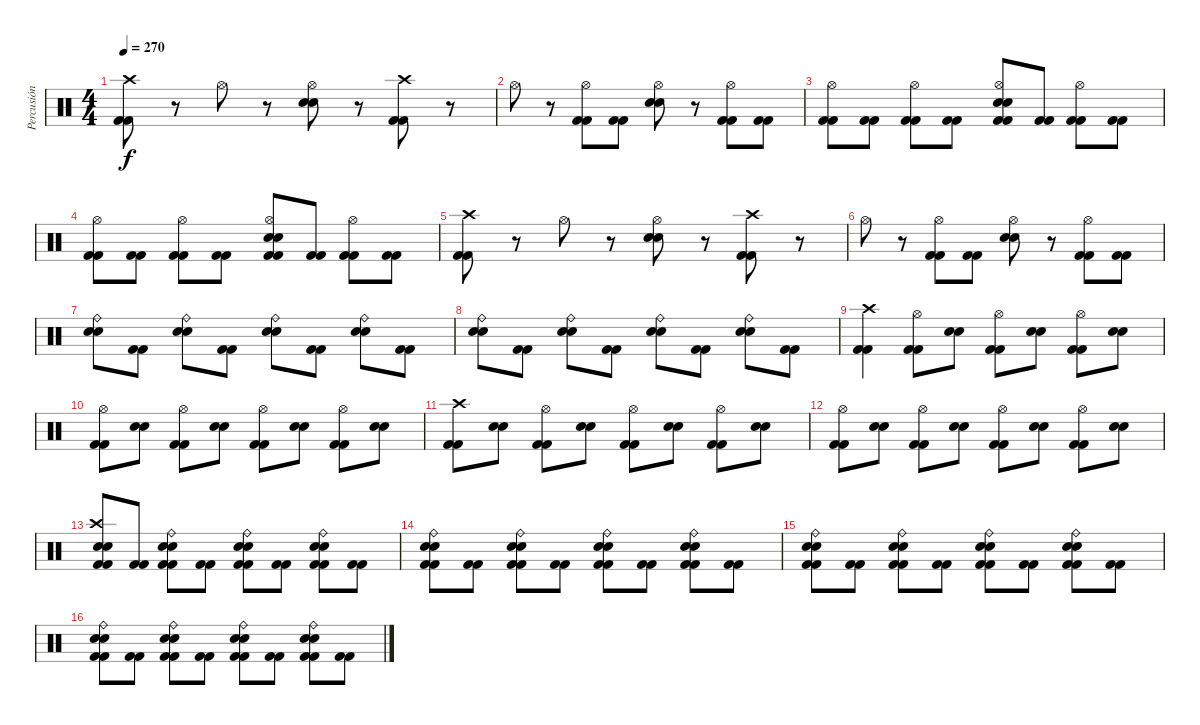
\track ("Percusión" "Percusión") {instrument percussion}
\staff {score}
\articulation defaults
\ts (4 4)
\tempo 270
\clef neutral
\ks c
("Kick (hit) 2" "Kick (hit) 2" "Crash high (hit)").8{dy f} r.8 "Hi-Hat (open)".8 r.8 ("Electric Snare (hit)" "Electric Snare (hit)" "Hi-Hat (open)").8 r.8 ("Kick (hit) 2" "Kick (hit) 2" "Crash high (hit)").8 r.8 |
"Hi-Hat (open)".8 r.8 ("Kick (hit) 2" "Kick (hit) 2" "Hi-Hat (open)").8 ("Kick (hit) 2" "Kick (hit) 2").8 ("Electric Snare (hit)" "Electric Snare (hit)" "Hi-Hat (open)").8 r.8 ("Kick (hit) 2" "Kick (hit) 2" "Hi-Hat (open)").8 ("Kick (hit) 2" "Kick (hit) 2").8 |
("Kick (hit) 2" "Kick (hit) 2" "Hi-Hat (open)").8 ("Kick (hit) 2" "Kick (hit) 2").8 ("Kick (hit) 2" "Kick (hit) 2" "Hi-Hat (open)").8 ("Kick (hit) 2" "Kick (hit) 2").8 ("Kick (hit) 2" "Kick (hit) 2" "Electric Snare (hit)" "Electric Snare (hit)" "Hi-Hat (open)").8 ("Kick (hit) 2" "Kick (hit) 2").8 ("Kick (hit) 2" "Kick (hit) 2" "Hi-Hat (open)").8 ("Kick (hit) 2" "Kick (hit) 2").8 |
("Kick (hit) 2" "Kick (hit) 2" "Hi-Hat (open)").8 ("Kick (hit) 2" "Kick (hit) 2").8 ("Kick (hit) 2" "Kick (hit) 2" "Hi-Hat (open)").8 ("Kick (hit) 2" "Kick (hit) 2").8 ("Kick (hit) 2" "Kick (hit) 2" "Electric Snare (hit)" "Electric Snare (hit)" "Hi-Hat (open)").8 ("Kick (hit) 2" "Kick (hit) 2").8 ("Kick (hit) 2" "Kick (hit) 2" "Hi-Hat (open)").8 ("Kick (hit) 2" "Kick (hit) 2").8 |
("Kick (hit) 2" "Kick (hit) 2" "Crash high (hit)").8 r.8 "Hi-Hat (open)".8 r.8 ("Electric Snare (hit)" "Electric Snare (hit)" "Hi-Hat (open)").8 r.8 ("Kick (hit) 2" "Kick (hit) 2" "Crash high (hit)").8 r.8 |
"Hi-Hat (open)".8 r.8 ("Kick (hit) 2" "Kick (hit) 2" "Hi-Hat (open)").8 ("Kick (hit) 2" "Kick (hit) 2").8 ("Electric Snare (hit)" "Electric Snare (hit)" "Hi-Hat (open)").8 r.8 ("Kick (hit) 2" "Kick (hit) 2" "Hi-Hat (open)").8 ("Kick (hit) 2" "Kick (hit) 2").8 |
("Electric Snare (hit)" "Electric Snare (hit)" "Ride (bell)").8 ("Kick (hit) 2" "Kick (hit) 2").8 ("Electric Snare (hit)" "Electric Snare (hit)" "Ride (bell)").8 ("Kick (hit) 2" "Kick (hit) 2").8 ("Electric Snare (hit)" "Electric Snare (hit)" "Ride (bell)").8 ("Kick (hit) 2" "Kick (hit) 2").8 ("Electric Snare (hit)" "Electric Snare (hit)" "Ride (bell)").8 ("Kick (hit) 2" "Kick (hit) 2").8 |
("Electric Snare (hit)" "Electric Snare (hit)" "Ride (bell)").8 ("Kick (hit) 2" "Kick (hit) 2").8 ("Electric Snare (hit)" "Electric Snare (hit)" "Ride (bell)").8 ("Kick (hit) 2" "Kick (hit) 2").8 ("Electric Snare (hit)" "Electric Snare (hit)" "Ride (bell)").8 ("Kick (hit) 2" "Kick (hit) 2").8 ("Electric Snare (hit)" "Electric Snare (hit)" "Ride (bell)").8 ("Kick (hit) 2" "Kick (hit) 2").8 |
("Kick (hit) 2" "Kick (hit) 2" "Crash high (hit)").4 ("Kick (hit) 2" "Kick (hit) 2" "Hi-Hat (open)").8 ("Electric Snare (hit)" "Electric Snare (hit)").8 ("Kick (hit) 2" "Kick (hit) 2" "Hi-Hat (open)").8 ("Electric Snare (hit)" "Electric Snare (hit)").8 ("Kick (hit) 2" "Kick (hit) 2" "Hi-Hat (open)").8 ("Electric Snare (hit)" "Electric Snare (hit)").8 |
("Kick (hit) 2" "Kick (hit) 2" "Hi-Hat (open)").8 ("Electric Snare (hit)" "Electric Snare (hit)").8 ("Kick (hit) 2" "Kick (hit) 2" "Hi-Hat (open)").8 ("Electric Snare (hit)" "Electric Snare (hit)").8 ("Kick (hit) 2" "Kick (hit) 2" "Hi-Hat (open)").8 ("Electric Snare (hit)" "Electric Snare (hit)").8 ("Kick (hit) 2" "Kick (hit) 2" "Hi-Hat (open)").8 ("Electric Snare (hit)" "Electric Snare (hit)").8 |
("Kick (hit) 2" "Kick (hit) 2" "Crash high (hit)").8 ("Electric Snare (hit)" "Electric Snare (hit)").8 ("Kick (hit) 2" "Kick (hit) 2" "Hi-Hat (open)").8 ("Electric Snare (hit)" "Electric Snare (hit)").8 ("Kick (hit) 2" "Kick (hit) 2" "Hi-Hat (open)").8 ("Electric Snare (hit)" "Electric Snare (hit)").8 ("Kick (hit) 2" "Kick (hit) 2" "Hi-Hat (open)").8 ("Electric Snare (hit)" "Electric Snare (hit)").8 |
("Kick (hit) 2" "Kick (hit) 2" "Hi-Hat (open)").8 ("Electric Snare (hit)" "Electric Snare (hit)").8 ("Kick (hit) 2" "Kick (hit) 2" "Hi-Hat (open)").8 ("Electric Snare (hit)" "Electric Snare (hit)").8 ("Kick (hit) 2" "Kick (hit) 2" "Hi-Hat (open)").8 ("Electric Snare (hit)" "Electric Snare (hit)").8 ("Kick (hit) 2" "Kick (hit) 2" "Hi-Hat (open)").8 ("Electric Snare (hit)" "Electric Snare (hit)").8 |
("Kick (hit) 2" "Kick (hit) 2" "Electric Snare (hit)" "Electric Snare (hit)" "Crash high (hit)").8 ("Kick (hit) 2" "Kick (hit) 2").8 ("Kick (hit) 2" "Kick (hit) 2" "Electric Snare (hit)" "Electric Snare (hit)" "Ride (bell)").8 ("Kick (hit) 2" "Kick (hit) 2").8 ("Kick (hit) 2" "Kick (hit) 2" "Electric Snare (hit)" "Electric Snare (hit)" "Ride (bell)").8 ("Kick (hit) 2" "Kick (hit) 2").8 ("Kick (hit) 2" "Kick (hit) 2" "Electric Snare (hit)" "Electric Snare (hit)" "Ride (bell)").8 ("Kick (hit) 2" "Kick (hit) 2").8 |
("Kick (hit) 2" "Kick (hit) 2" "Electric Snare (hit)" "Electric Snare (hit)" "Ride (bell)").8 ("Kick (hit) 2" "Kick (hit) 2").8 ("Kick (hit) 2" "Kick (hit) 2" "Electric Snare (hit)" "Electric Snare (hit)" "Ride (bell)").8 ("Kick (hit) 2" "Kick (hit) 2").8 ("Kick (hit) 2" "Kick (hit) 2" "Electric Snare (hit)" "Electric Snare (hit)" "Ride (bell)").8 ("Kick (hit) 2" "Kick (hit) 2").8 ("Kick (hit) 2" "Kick (hit) 2" "Electric Snare (hit)" "Electric Snare (hit)" "Ride (bell)").8 ("Kick (hit) 2" "Kick (hit) 2").8 |
("Kick (hit) 2" "Kick (hit) 2" "Electric Snare (hit)" "Electric Snare (hit)" "Ride (bell)").8 ("Kick (hit) 2" "Kick (hit) 2").8 ("Kick (hit) 2" "Kick (hit) 2" "Electric Snare (hit)" "Electric Snare (hit)" "Ride (bell)").8 ("Kick (hit) 2" "Kick (hit) 2").8 ("Kick (hit) 2" "Kick (hit) 2" "Electric Snare (hit)" "Electric Snare (hit)" "Ride (bell)").8 ("Kick (hit) 2" "Kick (hit) 2").8 ("Kick (hit) 2" "Kick (hit) 2" "Electric Snare (hit)" "Electric Snare (hit)" "Ride (bell)").8 ("Kick (hit) 2" "Kick (hit) 2").8 |
("Kick (hit) 2" "Kick (hit) 2" "Electric Snare (hit)" "Electric Snare (hit)" "Ride (bell)").8 ("Kick (hit) 2" "Kick (hit) 2").8 ("Kick (hit) 2" "Kick (hit) 2" "Electric Snare (hit)" "Electric Snare (hit)" "Ride (bell)").8 ("Kick (hit) 2" "Kick (hit) 2").8 ("Kick (hit) 2" "Kick (hit) 2" "Electric Snare (hit)" "Electric Snare (hit)" "Ride (bell)").8 ("Kick (hit) 2" "Kick (hit) 2").8 ("Kick (hit) 2" "Kick (hit) 2" "Electric Snare (hit)" "Electric Snare (hit)" "Ride (bell)").8 ("Kick (hit) 2" "Kick (hit) 2").8
